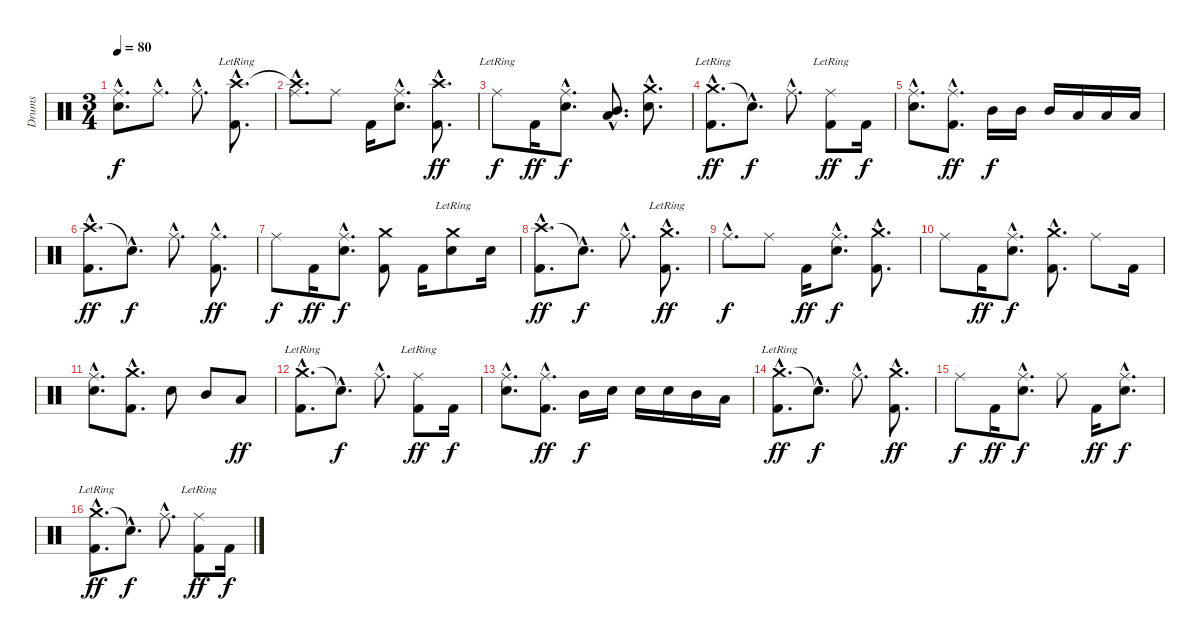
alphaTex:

\track ("Drums" "Drums") {instrument percussion}
\staff {score}
\articulation defaults
\ts (3 4)
\tempo 80
\clef neutral
\ks c
("Ride (middle)"{hac} "Snare (hit) 2"{hac}).8{d dy f} "Ride (middle)"{hac}.8{d} "Ride (middle)"{hac}.8{d} ("Crash high (hit)"{hac lr} "Kick (hit) 2"{hac}).8{d} |
("Crash high (hit)"{hac t} "Ride (middle)"{hac}).8{d} "Ride (middle)".8 "Kick (hit) 2".16 ("Ride (middle)"{hac} "Snare (hit) 2"{hac}).8{d} ("Crash high (hit)"{hac} "Kick (hit) 2"{hac}).8{d dy ff} |
"Ride (middle)"{lr}.8{dy f} "Kick (hit) 2".16{dy ff} ("Ride (middle)"{hac} "Snare (hit) 2"{hac}).8{d dy f} ("Low Tom (hit)"{hac} "Mid Tom (hit)"{hac}).8{d bd 240} ("Crash medium (hit)"{hac} "Snare (hit) 2"{hac}).8{d} |
("Crash medium (hit)"{hac lr} "Kick (hit) 2"{hac}).8{d dy ff} "Snare (hit)"{hac t}.8{d dy f} "Ride (middle)"{hac}.8{d} ("Ride (middle)"{lr} "Kick (hit) 2").8{dy ff} "Kick (hit) 2".16{dy f} |
("Ride (middle)"{hac} "Snare (hit) 2"{hac}).8{d} ("Ride (middle)"{hac} "Kick (hit) 2"{hac}).8{d dy ff} "Mid Tom (hit)".16{dy f} "Mid Tom (hit)".16 "Mid Tom (hit)".16 "Low Tom (hit)".16 "Low Tom (hit)".16 "Low Tom (hit)".16 |
("Crash high (hit)"{hac} "Kick (hit) 2"{hac}).8{d dy ff} "Snare (hit)"{hac t}.8{d dy f} "Ride (middle)"{hac}.8{d} ("Ride (middle)"{hac} "Kick (hit) 2"{hac}).8{d dy ff} |
"Ride (middle)".8{dy f} "Kick (hit) 2".16{dy ff} ("Ride (middle)"{hac} "Snare (hit) 2"{hac}).8{d dy f} ("Crash medium (hit)" "Kick (hit) 2").8 "Kick (hit) 2".16 ("Crash medium (hit)"{lr} "Snare (hit) 2").8 "Snare (hit) 2".16 |
("Crash high (hit)"{hac} "Kick (hit) 2"{hac}).8{d dy ff} "Snare (hit)"{hac t}.8{d dy f} "Ride (middle)"{hac}.8{d} ("Crash medium (hit)"{hac lr} "Kick (hit) 2"{hac}).8{d dy ff} |
"Ride (middle)"{hac}.8{d dy f} "Ride (middle)".8 "Kick (hit) 2".16{dy ff} ("Ride (middle)"{hac} "Snare (hit) 2"{hac}).8{d dy f} ("Crash medium (hit)"{hac} "Kick (hit) 2"{hac}).8{d} |
"Ride (middle)".8 "Kick (hit) 2".16{dy ff} ("Ride (middle)"{hac} "Snare (hit) 2"{hac}).8{d dy f} ("Crash medium (hit)"{hac} "Kick (hit) 2"{hac}).8{d} "Ride (middle)".8 "Kick (hit) 2".16 |
("Ride (middle)"{hac} "Snare (hit) 2"{hac}).8{d} ("Crash medium (hit)"{hac} "Kick (hit) 2"{hac}).8{d} "Snare (hit) 2".8 "Mid Tom (hit)".8 "Low Tom (hit)".8{dy ff} |
("Crash medium (hit)"{hac lr} "Kick (hit) 2"{hac}).8{d} "Snare (hit)"{hac t}.8{d dy f} "Ride (middle)"{hac}.8{d} ("Ride (middle)"{lr} "Kick (hit) 2").8{dy ff} "Kick (hit) 2".16{dy f} |
("Ride (middle)"{hac} "Snare (hit) 2"{hac}).8{d} ("Ride (middle)"{hac} "Kick (hit) 2"{hac}).8{d dy ff} "Mid Tom (hit)".16{dy f} "Snare (hit) 2".16 "Snare (hit) 2".16 "Snare (hit) 2".16 "Mid Tom (hit)".16 "Low Tom (hit)".16 |
("Crash medium (hit)"{hac lr} "Kick (hit) 2"{hac}).8{d dy ff} "Snare (hit)"{hac t}.8{d dy f} "Ride (middle)"{hac}.8{d} ("Crash medium (hit)"{hac} "Kick (hit) 2"{hac}).8{d dy ff} |
"Ride (middle)".8{dy f} "Kick (hit) 2".16{dy ff} ("Ride (middle)"{hac} "Snare (hit) 2"{hac}).8{d dy f} "Ride (middle)".8 "Kick (hit) 2".16{dy ff} ("Ride (middle)"{hac} "Snare (hit) 2"{hac}).8{d dy f} |
("Crash medium (hit)"{hac lr} "Kick (hit) 2"{hac}).8{d dy ff} "Snare (hit)"{hac t}.8{d dy f} "Ride (middle)"{hac}.8{d} ("Ride (middle)"{lr} "Kick (hit) 2").8{dy ff} "Kick (hit) 2".16{dy f}
